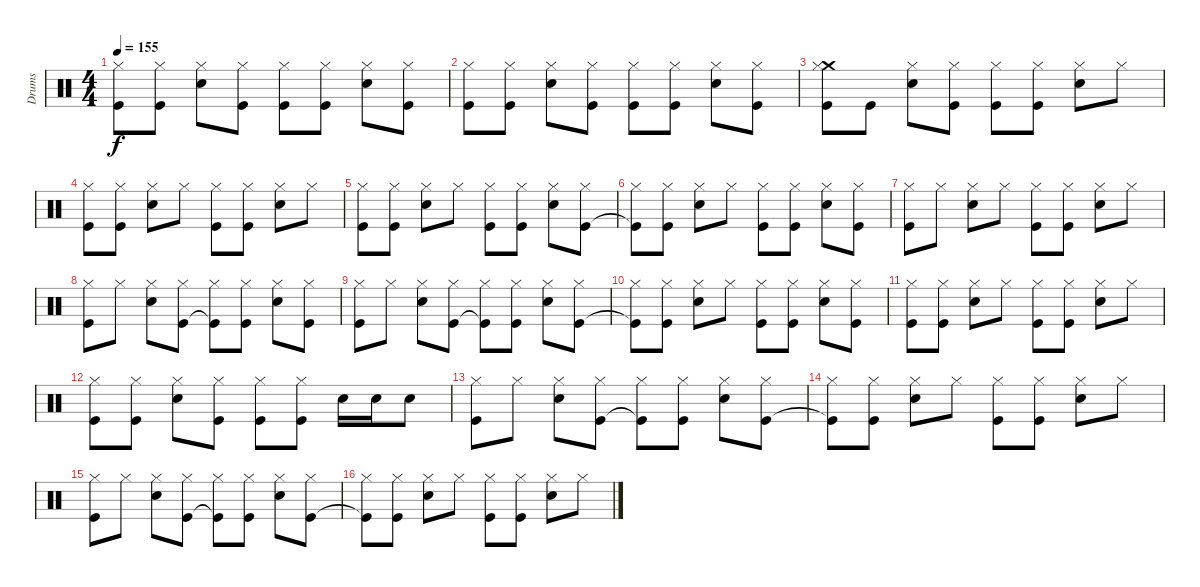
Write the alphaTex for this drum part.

\track ("Drums" "Drums") {instrument percussion}
\staff {score}
\articulation defaults
\ts (4 4)
\tempo 155
\clef neutral
\ks c
("Hi-Hat (closed)" "Kick (hit)").8{dy f} ("Hi-Hat (closed)" "Kick (hit)").8 ("Hi-Hat (closed)" "Snare (hit) 2").8 ("Hi-Hat (closed)" "Kick (hit)").8 ("Hi-Hat (closed)" "Kick (hit)").8 ("Hi-Hat (closed)" "Kick (hit)").8 ("Hi-Hat (closed)" "Snare (hit) 2").8 ("Hi-Hat (closed)" "Kick (hit)").8 |
("Hi-Hat (closed)" "Kick (hit)").8 ("Hi-Hat (closed)" "Kick (hit)").8 ("Hi-Hat (closed)" "Snare (hit) 2").8 ("Hi-Hat (closed)" "Kick (hit)").8 ("Hi-Hat (closed)" "Kick (hit)").8 ("Hi-Hat (closed)" "Kick (hit)").8 ("Hi-Hat (closed)" "Snare (hit) 2").8 ("Hi-Hat (closed)" "Kick (hit)").8 |
("Crash medium (hit)" "Hi-Hat (closed)" "Kick (hit)").8 "Kick (hit)".8 ("Hi-Hat (closed)" "Snare (hit) 2").8 ("Hi-Hat (closed)" "Kick (hit)").8 ("Hi-Hat (closed)" "Kick (hit)").8 ("Hi-Hat (closed)" "Kick (hit)").8 ("Hi-Hat (closed)" "Snare (hit) 2").8 "Hi-Hat (closed)".8 |
("Hi-Hat (closed)" "Kick (hit)").8 ("Hi-Hat (closed)" "Kick (hit)").8 ("Hi-Hat (closed)" "Snare (hit) 2").8 "Hi-Hat (closed)".8 ("Hi-Hat (closed)" "Kick (hit)").8 ("Hi-Hat (closed)" "Kick (hit)").8 ("Hi-Hat (closed)" "Snare (hit) 2").8 "Hi-Hat (closed)".8 |
("Hi-Hat (closed)" "Kick (hit)").8 ("Hi-Hat (closed)" "Kick (hit)").8 ("Hi-Hat (closed)" "Snare (hit) 2").8 "Hi-Hat (closed)".8 ("Hi-Hat (closed)" "Kick (hit)").8 ("Hi-Hat (closed)" "Kick (hit)").8 ("Hi-Hat (closed)" "Snare (hit) 2").8 ("Hi-Hat (closed)" "Kick (hit)").8 |
("Hi-Hat (closed)" "Kick (hit)"{t}).8 ("Hi-Hat (closed)" "Kick (hit)").8 ("Hi-Hat (closed)" "Snare (hit) 2").8 "Hi-Hat (closed)".8 ("Hi-Hat (closed)" "Kick (hit)").8 ("Hi-Hat (closed)" "Kick (hit)").8 ("Hi-Hat (closed)" "Snare (hit) 2").8 ("Hi-Hat (closed)" "Kick (hit)").8 |
("Hi-Hat (closed)" "Kick (hit)").8 "Hi-Hat (closed)".8 ("Hi-Hat (closed)" "Snare (hit) 2").8 "Hi-Hat (closed)".8 ("Hi-Hat (closed)" "Kick (hit)").8 ("Hi-Hat (closed)" "Kick (hit)").8 ("Hi-Hat (closed)" "Snare (hit) 2").8 "Hi-Hat (closed)".8 |
("Hi-Hat (closed)" "Kick (hit)").8 "Hi-Hat (closed)".8 ("Hi-Hat (closed)" "Snare (hit) 2").8 ("Hi-Hat (closed)" "Kick (hit)").8 ("Hi-Hat (closed)" "Kick (hit)"{t}).8 ("Hi-Hat (closed)" "Kick (hit)").8 ("Hi-Hat (closed)" "Snare (hit) 2").8 ("Hi-Hat (closed)" "Kick (hit)").8 |
("Hi-Hat (closed)" "Kick (hit)").8 "Hi-Hat (closed)".8 ("Hi-Hat (closed)" "Snare (hit) 2").8 ("Hi-Hat (closed)" "Kick (hit)").8 ("Hi-Hat (closed)" "Kick (hit)"{t}).8 ("Hi-Hat (closed)" "Kick (hit)").8 ("Hi-Hat (closed)" "Snare (hit) 2").8 ("Hi-Hat (closed)" "Kick (hit)").8 |
("Hi-Hat (closed)" "Kick (hit)"{t}).8 ("Hi-Hat (closed)" "Kick (hit)").8 ("Hi-Hat (closed)" "Snare (hit) 2").8 "Hi-Hat (closed)".8 ("Hi-Hat (closed)" "Kick (hit)").8 ("Hi-Hat (closed)" "Kick (hit)").8 ("Hi-Hat (closed)" "Snare (hit) 2").8 ("Hi-Hat (closed)" "Kick (hit)").8 |
("Hi-Hat (closed)" "Kick (hit)").8 ("Hi-Hat (closed)" "Kick (hit)").8 ("Hi-Hat (closed)" "Snare (hit) 2").8 "Hi-Hat (closed)".8 ("Hi-Hat (closed)" "Kick (hit)").8 ("Hi-Hat (closed)" "Kick (hit)").8 ("Hi-Hat (closed)" "Snare (hit) 2").8 "Hi-Hat (closed)".8 |
("Hi-Hat (closed)" "Kick (hit)").8 ("Hi-Hat (closed)" "Kick (hit)").8 ("Hi-Hat (closed)" "Snare (hit) 2").8 ("Hi-Hat (closed)" "Kick (hit)").8 ("Hi-Hat (closed)" "Kick (hit)").8 ("Hi-Hat (closed)" "Kick (hit)").8 "Snare (hit) 2".16 "Snare (hit) 2".16 "Snare (hit) 2".8 |
("Hi-Hat (closed)" "Kick (hit)").8 "Hi-Hat (closed)".8 ("Hi-Hat (closed)" "Snare (hit) 2").8 ("Hi-Hat (closed)" "Kick (hit)").8 ("Hi-Hat (closed)" "Kick (hit)"{t}).8 ("Hi-Hat (closed)" "Kick (hit)").8 ("Hi-Hat (closed)" "Snare (hit) 2").8 ("Hi-Hat (closed)" "Kick (hit)").8 |
("Hi-Hat (closed)" "Kick (hit)"{t}).8 ("Hi-Hat (closed)" "Kick (hit)").8 ("Hi-Hat (closed)" "Snare (hit) 2").8 "Hi-Hat (closed)".8 ("Hi-Hat (closed)" "Kick (hit)").8 ("Hi-Hat (closed)" "Kick (hit)").8 ("Hi-Hat (closed)" "Snare (hit) 2").8 "Hi-Hat (closed)".8 |
("Hi-Hat (closed)" "Kick (hit)").8 "Hi-Hat (closed)".8 ("Hi-Hat (closed)" "Snare (hit) 2").8 ("Hi-Hat (closed)" "Kick (hit)").8 ("Hi-Hat (closed)" "Kick (hit)"{t}).8 ("Hi-Hat (closed)" "Kick (hit)").8 ("Hi-Hat (closed)" "Snare (hit) 2").8 ("Hi-Hat (closed)" "Kick (hit)").8 |
("Hi-Hat (closed)" "Kick (hit)"{t}).8 ("Hi-Hat (closed)" "Kick (hit)").8 ("Hi-Hat (closed)" "Snare (hit) 2").8 "Hi-Hat (closed)".8 ("Hi-Hat (closed)" "Kick (hit)").8 ("Hi-Hat (closed)" "Kick (hit)").8 ("Hi-Hat (closed)" "Snare (hit) 2").8 "Hi-Hat (closed)".8
